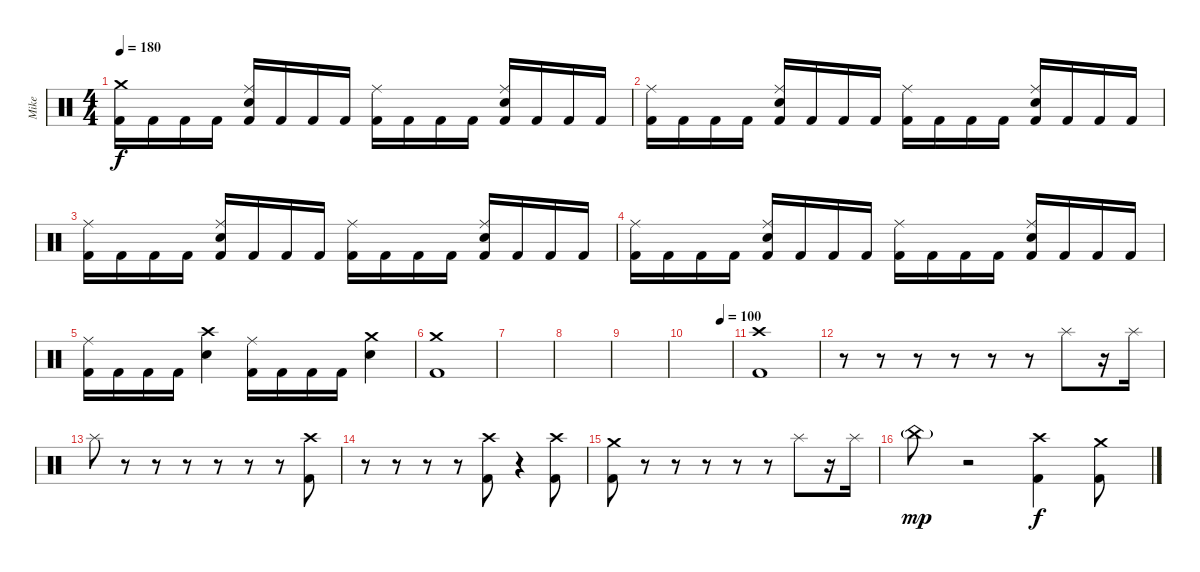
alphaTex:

\track ("Mike" "Mike") {instrument percussion}
\staff {score}
\articulation defaults
\ts (4 4)
\tempo 180
\clef neutral
\ks c
("Crash medium (hit)" "Kick (hit) 2").16{dy f} "Kick (hit) 2".16 "Kick (hit) 2".16 "Kick (hit) 2".16 ("Ride (middle)" "Electric Snare (hit)" "Kick (hit) 2").16 "Kick (hit) 2".16 "Kick (hit) 2".16 "Kick (hit) 2".16 ("Ride (middle)" "Kick (hit) 2").16 "Kick (hit) 2".16 "Kick (hit) 2".16 "Kick (hit) 2".16 ("Ride (middle)" "Electric Snare (hit)" "Kick (hit) 2").16 "Kick (hit) 2".16 "Kick (hit) 2".16 "Kick (hit) 2".16 |
("Ride (middle)" "Kick (hit) 2").16 "Kick (hit) 2".16 "Kick (hit) 2".16 "Kick (hit) 2".16 ("Ride (middle)" "Electric Snare (hit)" "Kick (hit) 2").16 "Kick (hit) 2".16 "Kick (hit) 2".16 "Kick (hit) 2".16 ("Ride (middle)" "Kick (hit) 2").16 "Kick (hit) 2".16 "Kick (hit) 2".16 "Kick (hit) 2".16 ("Ride (middle)" "Electric Snare (hit)" "Kick (hit) 2").16 "Kick (hit) 2".16 "Kick (hit) 2".16 "Kick (hit) 2".16 |
("Ride (middle)" "Kick (hit) 2").16 "Kick (hit) 2".16 "Kick (hit) 2".16 "Kick (hit) 2".16 ("Ride (middle)" "Electric Snare (hit)" "Kick (hit) 2").16 "Kick (hit) 2".16 "Kick (hit) 2".16 "Kick (hit) 2".16 ("Ride (middle)" "Kick (hit) 2").16 "Kick (hit) 2".16 "Kick (hit) 2".16 "Kick (hit) 2".16 ("Ride (middle)" "Electric Snare (hit)" "Kick (hit) 2").16 "Kick (hit) 2".16 "Kick (hit) 2".16 "Kick (hit) 2".16 |
("Ride (middle)" "Kick (hit) 2").16 "Kick (hit) 2".16 "Kick (hit) 2".16 "Kick (hit) 2".16 ("Ride (middle)" "Electric Snare (hit)" "Kick (hit) 2").16 "Kick (hit) 2".16 "Kick (hit) 2".16 "Kick (hit) 2".16 ("Ride (middle)" "Kick (hit) 2").16 "Kick (hit) 2".16 "Kick (hit) 2".16 "Kick (hit) 2".16 ("Ride (middle)" "Electric Snare (hit)" "Kick (hit) 2").16 "Kick (hit) 2".16 "Kick (hit) 2".16 "Kick (hit) 2".16 |
("Ride (middle)" "Kick (hit) 2").16 "Kick (hit) 2".16 "Kick (hit) 2".16 "Kick (hit) 2".16 ("Crash high (hit)" "Electric Snare (hit)").4 ("Ride (middle)" "Kick (hit) 2").16 "Kick (hit) 2".16 "Kick (hit) 2".16 "Kick (hit) 2".16 ("Crash medium (hit)" "Electric Snare (hit)").4 |
("Crash medium (hit)" "Kick (hit) 2").1 |
|
|
|
\tempo (100 0.75)
|
("Crash high (hit)" "Kick (hit) 2").1 |
r.8 r.8 r.8 r.8 r.8 r.8 "Splash (hit)".8 r.16 "Splash (hit)".16 |
"Splash (hit)".8 r.8 r.8 r.8 r.8 r.8 r.8 ("Crash high (hit)" "Kick (hit) 2").8 |
r.8 r.8 r.8 r.8 ("Crash high (hit)" "Kick (hit) 2").8 r.4 ("Crash high (hit)" "Kick (hit) 2").8 |
("Crash medium (hit)" "Kick (hit) 2").8 r.8 r.8 r.8 r.8 r.8 "Splash (hit)".8 r.16 "Splash (hit)".16 |
"China (hit)"{g}.8{dy mp} r.2 ("Crash high (hit)" "Kick (hit) 2").4{dy f} ("Crash medium (hit)" "Kick (hit) 2").8
